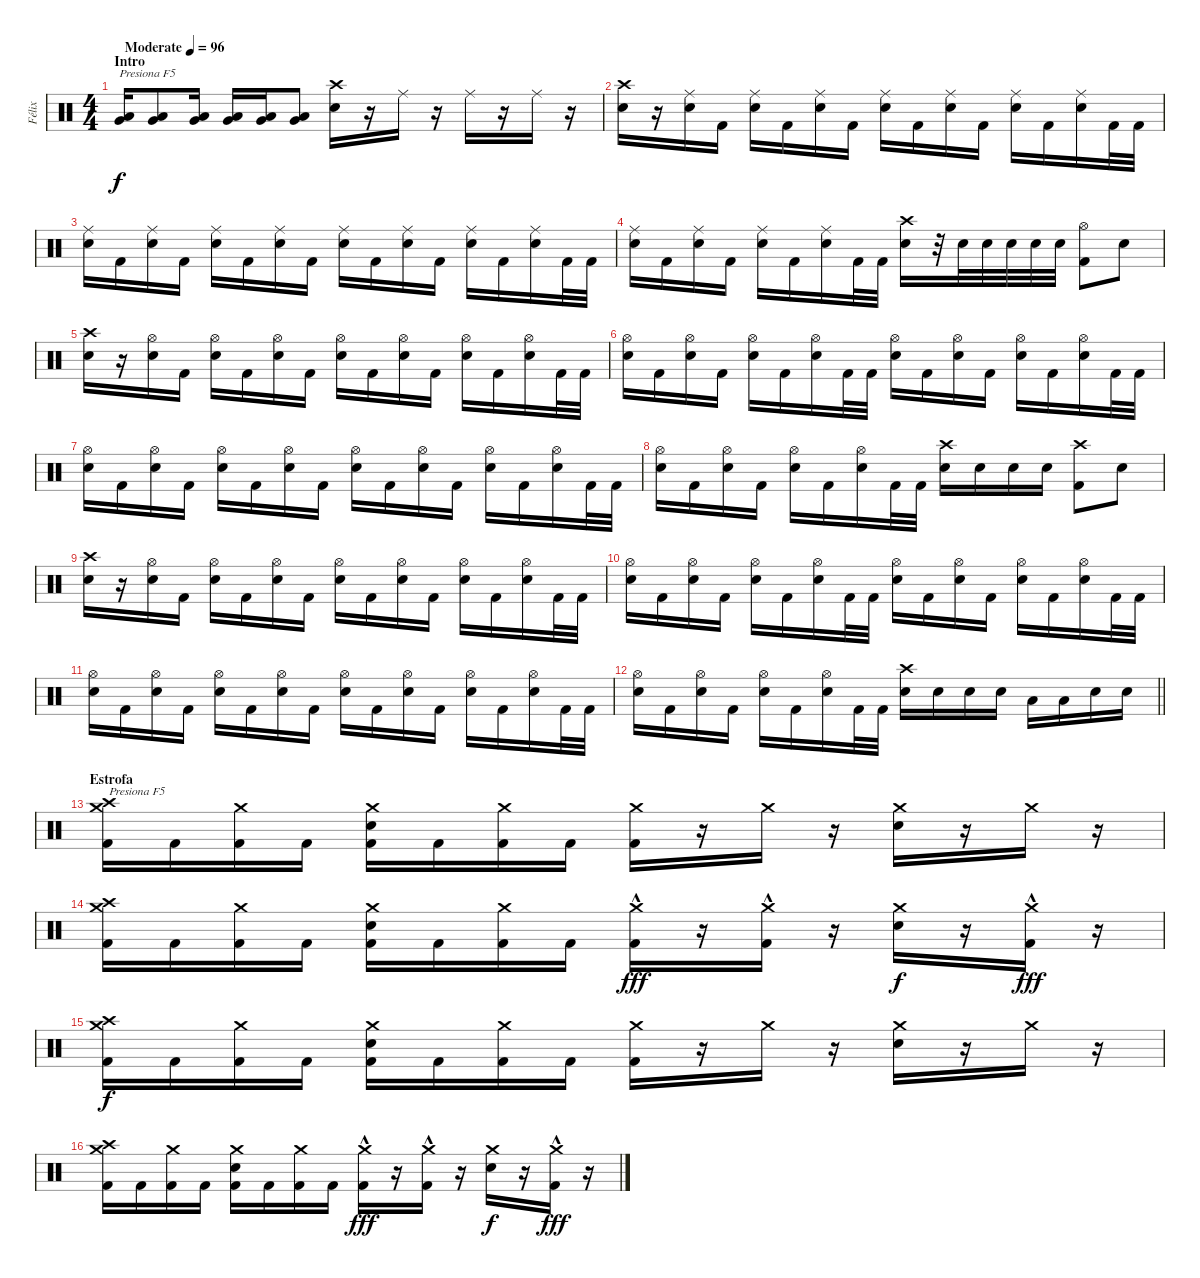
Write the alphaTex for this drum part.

\track ("Félix" "Félix") {instrument percussion}
\staff {score}
\articulation defaults
\ts (4 4)
\section ("" "Intro")
\tempo (96 "Moderate")
\clef neutral
\ks c
("Low Floor Tom (hit)" "Very Low Tom (hit)").16{txt "Presiona F5" dy f} ("Low Floor Tom (hit)" "Very Low Tom (hit)").8 ("Low Floor Tom (hit)" "Very Low Tom (hit)").16 ("Low Floor Tom (hit)" "Very Low Tom (hit)").16 ("Low Floor Tom (hit)" "Very Low Tom (hit)").16 ("Low Floor Tom (hit)" "Very Low Tom (hit)").8 ("Crash high (hit)" "Snare (hit) 2").16 r.16 "Ride (middle)".16 r.16 "Ride (middle)".16 r.16 "Ride (middle)".16 r.16 |
("Crash high (hit)" "Snare (hit) 2").16 r.16 ("Ride (middle)" "Snare (hit) 2").16 "Kick (hit) 2".16 ("Ride (middle)" "Snare (hit) 2").16 "Kick (hit) 2".16 ("Ride (middle)" "Snare (hit) 2").16 "Kick (hit) 2".16 ("Ride (middle)" "Snare (hit) 2").16 "Kick (hit) 2".16 ("Ride (middle)" "Snare (hit) 2").16 "Kick (hit) 2".16 ("Ride (middle)" "Snare (hit) 2").16 "Kick (hit) 2".16 ("Ride (middle)" "Snare (hit) 2").16 "Kick (hit) 2".32 "Kick (hit) 2".32 |
("Ride (middle)" "Snare (hit) 2").16 "Kick (hit) 2".16 ("Ride (middle)" "Snare (hit) 2").16 "Kick (hit) 2".16 ("Ride (middle)" "Snare (hit) 2").16 "Kick (hit) 2".16 ("Ride (middle)" "Snare (hit) 2").16 "Kick (hit) 2".16 ("Ride (middle)" "Snare (hit) 2").16 "Kick (hit) 2".16 ("Ride (middle)" "Snare (hit) 2").16 "Kick (hit) 2".16 ("Ride (middle)" "Snare (hit) 2").16 "Kick (hit) 2".16 ("Ride (middle)" "Snare (hit) 2").16 "Kick (hit) 2".32 "Kick (hit) 2".32 |
("Ride (middle)" "Snare (hit) 2").16 "Kick (hit) 2".16 ("Ride (middle)" "Snare (hit) 2").16 "Kick (hit) 2".16 ("Ride (middle)" "Snare (hit) 2").16 "Kick (hit) 2".16 ("Ride (middle)" "Snare (hit) 2").16 "Kick (hit) 2".32 "Kick (hit) 2".32 ("Crash high (hit)" "Snare (hit) 2").16 r.32 "Snare (hit) 2".32 "Snare (hit) 2".32 "Snare (hit) 2".32 "Snare (hit) 2".32 "Snare (hit) 2".32 ("Hi-Hat (open)" "Kick (hit) 2").8 "Snare (hit) 2".8 |
("Crash high (hit)" "Snare (hit) 2").16 r.16 ("Hi-Hat (open)" "Snare (hit) 2").16 "Kick (hit) 2".16 ("Hi-Hat (open)" "Snare (hit) 2").16 "Kick (hit) 2".16 ("Hi-Hat (open)" "Snare (hit) 2").16 "Kick (hit) 2".16 ("Hi-Hat (open)" "Snare (hit) 2").16 "Kick (hit) 2".16 ("Hi-Hat (open)" "Snare (hit) 2").16 "Kick (hit) 2".16 ("Hi-Hat (open)" "Snare (hit) 2").16 "Kick (hit) 2".16 ("Hi-Hat (open)" "Snare (hit) 2").16 "Kick (hit) 2".32 "Kick (hit) 2".32 |
("Hi-Hat (open)" "Snare (hit) 2").16 "Kick (hit) 2".16 ("Hi-Hat (open)" "Snare (hit) 2").16 "Kick (hit) 2".16 ("Hi-Hat (open)" "Snare (hit) 2").16 "Kick (hit) 2".16 ("Hi-Hat (open)" "Snare (hit) 2").16 "Kick (hit) 2".32 "Kick (hit) 2".32 ("Hi-Hat (open)" "Snare (hit) 2").16 "Kick (hit) 2".16 ("Hi-Hat (open)" "Snare (hit) 2").16 "Kick (hit) 2".16 ("Hi-Hat (open)" "Snare (hit) 2").16 "Kick (hit) 2".16 ("Hi-Hat (open)" "Snare (hit) 2").16 "Kick (hit) 2".32 "Kick (hit) 2".32 |
("Hi-Hat (open)" "Snare (hit) 2").16 "Kick (hit) 2".16 ("Hi-Hat (open)" "Snare (hit) 2").16 "Kick (hit) 2".16 ("Hi-Hat (open)" "Snare (hit) 2").16 "Kick (hit) 2".16 ("Hi-Hat (open)" "Snare (hit) 2").16 "Kick (hit) 2".16 ("Hi-Hat (open)" "Snare (hit) 2").16 "Kick (hit) 2".16 ("Hi-Hat (open)" "Snare (hit) 2").16 "Kick (hit) 2".16 ("Hi-Hat (open)" "Snare (hit) 2").16 "Kick (hit) 2".16 ("Hi-Hat (open)" "Snare (hit) 2").16 "Kick (hit) 2".32 "Kick (hit) 2".32 |
("Hi-Hat (open)" "Snare (hit) 2").16 "Kick (hit) 2".16 ("Hi-Hat (open)" "Snare (hit) 2").16 "Kick (hit) 2".16 ("Hi-Hat (open)" "Snare (hit) 2").16 "Kick (hit) 2".16 ("Hi-Hat (open)" "Snare (hit) 2").16 "Kick (hit) 2".32 "Kick (hit) 2".32 ("Crash high (hit)" "Snare (hit) 2").16 "Snare (hit) 2".16 "Snare (hit) 2".16 "Snare (hit) 2".16 ("Crash high (hit)" "Kick (hit) 2").8 "Snare (hit) 2".8 |
("Crash high (hit)" "Snare (hit) 2").16 r.16 ("Hi-Hat (open)" "Snare (hit) 2").16 "Kick (hit) 2".16 ("Hi-Hat (open)" "Snare (hit) 2").16 "Kick (hit) 2".16 ("Hi-Hat (open)" "Snare (hit) 2").16 "Kick (hit) 2".16 ("Hi-Hat (open)" "Snare (hit) 2").16 "Kick (hit) 2".16 ("Hi-Hat (open)" "Snare (hit) 2").16 "Kick (hit) 2".16 ("Hi-Hat (open)" "Snare (hit) 2").16 "Kick (hit) 2".16 ("Hi-Hat (open)" "Snare (hit) 2").16 "Kick (hit) 2".32 "Kick (hit) 2".32 |
("Hi-Hat (open)" "Snare (hit) 2").16 "Kick (hit) 2".16 ("Hi-Hat (open)" "Snare (hit) 2").16 "Kick (hit) 2".16 ("Hi-Hat (open)" "Snare (hit) 2").16 "Kick (hit) 2".16 ("Hi-Hat (open)" "Snare (hit) 2").16 "Kick (hit) 2".32 "Kick (hit) 2".32 ("Hi-Hat (open)" "Snare (hit) 2").16 "Kick (hit) 2".16 ("Hi-Hat (open)" "Snare (hit) 2").16 "Kick (hit) 2".16 ("Hi-Hat (open)" "Snare (hit) 2").16 "Kick (hit) 2".16 ("Hi-Hat (open)" "Snare (hit) 2").16 "Kick (hit) 2".32 "Kick (hit) 2".32 |
("Hi-Hat (open)" "Snare (hit) 2").16 "Kick (hit) 2".16 ("Hi-Hat (open)" "Snare (hit) 2").16 "Kick (hit) 2".16 ("Hi-Hat (open)" "Snare (hit) 2").16 "Kick (hit) 2".16 ("Hi-Hat (open)" "Snare (hit) 2").16 "Kick (hit) 2".16 ("Hi-Hat (open)" "Snare (hit) 2").16 "Kick (hit) 2".16 ("Hi-Hat (open)" "Snare (hit) 2").16 "Kick (hit) 2".16 ("Hi-Hat (open)" "Snare (hit) 2").16 "Kick (hit) 2".16 ("Hi-Hat (open)" "Snare (hit) 2").16 "Kick (hit) 2".32 "Kick (hit) 2".32 |
\barLineRight lightlight
("Hi-Hat (open)" "Snare (hit) 2").16 "Kick (hit) 2".16 ("Hi-Hat (open)" "Snare (hit) 2").16 "Kick (hit) 2".16 ("Hi-Hat (open)" "Snare (hit) 2").16 "Kick (hit) 2".16 ("Hi-Hat (open)" "Snare (hit) 2").16 "Kick (hit) 2".32 "Kick (hit) 2".32 ("Crash high (hit)" "Snare (hit) 2").16 "Snare (hit) 2".16 "Snare (hit) 2".16 "Snare (hit) 2".16 "Low Tom (hit)".16 "Low Tom (hit)".16 "Snare (hit) 2".16 "Snare (hit) 2".16 |
\section ("" "Estrofa")
("Crash high (hit)" "Crash medium (hit)" "Kick (hit) 2").16{txt "Presiona F5"} "Kick (hit) 2".16 ("Crash medium (hit)" "Kick (hit) 2").16 "Kick (hit) 2".16 ("Crash medium (hit)" "Snare (hit) 2" "Kick (hit) 2").16 "Kick (hit) 2".16 ("Crash medium (hit)" "Kick (hit) 2").16 "Kick (hit) 2".16 ("Crash medium (hit)" "Kick (hit) 2").16 r.16 "Crash medium (hit)".16 r.16 ("Crash medium (hit)" "Snare (hit) 2").16 r.16 "Crash medium (hit)".16 r.16 |
("Crash high (hit)" "Crash medium (hit)" "Kick (hit) 2").16 "Kick (hit) 2".16 ("Crash medium (hit)" "Kick (hit) 2").16 "Kick (hit) 2".16 ("Crash medium (hit)" "Snare (hit) 2" "Kick (hit) 2").16 "Kick (hit) 2".16 ("Crash medium (hit)" "Kick (hit) 2").16 "Kick (hit) 2".16 ("Crash medium (hit)" "Kick (hit) 2"{hac}).16{dy fff} r.16 ("Crash medium (hit)" "Kick (hit) 2"{hac}).16 r.16 ("Crash medium (hit)" "Snare (hit) 2").16{dy f} r.16 ("Crash medium (hit)" "Kick (hit) 2"{hac}).16{dy fff} r.16 |
("Crash high (hit)" "Crash medium (hit)" "Kick (hit) 2").16{dy f} "Kick (hit) 2".16 ("Crash medium (hit)" "Kick (hit) 2").16 "Kick (hit) 2".16 ("Crash medium (hit)" "Snare (hit) 2" "Kick (hit) 2").16 "Kick (hit) 2".16 ("Crash medium (hit)" "Kick (hit) 2").16 "Kick (hit) 2".16 ("Crash medium (hit)" "Kick (hit) 2").16 r.16 "Crash medium (hit)".16 r.16 ("Crash medium (hit)" "Snare (hit) 2").16 r.16 "Crash medium (hit)".16 r.16 |
("Crash high (hit)" "Crash medium (hit)" "Kick (hit) 2").16 "Kick (hit) 2".16 ("Crash medium (hit)" "Kick (hit) 2").16 "Kick (hit) 2".16 ("Crash medium (hit)" "Snare (hit) 2" "Kick (hit) 2").16 "Kick (hit) 2".16 ("Crash medium (hit)" "Kick (hit) 2").16 "Kick (hit) 2".16 ("Crash medium (hit)" "Kick (hit) 2"{hac}).16{dy fff} r.16 ("Crash medium (hit)" "Kick (hit) 2"{hac}).16 r.16 ("Crash medium (hit)" "Snare (hit) 2").16{dy f} r.16 ("Crash medium (hit)" "Kick (hit) 2"{hac}).16{dy fff} r.16
